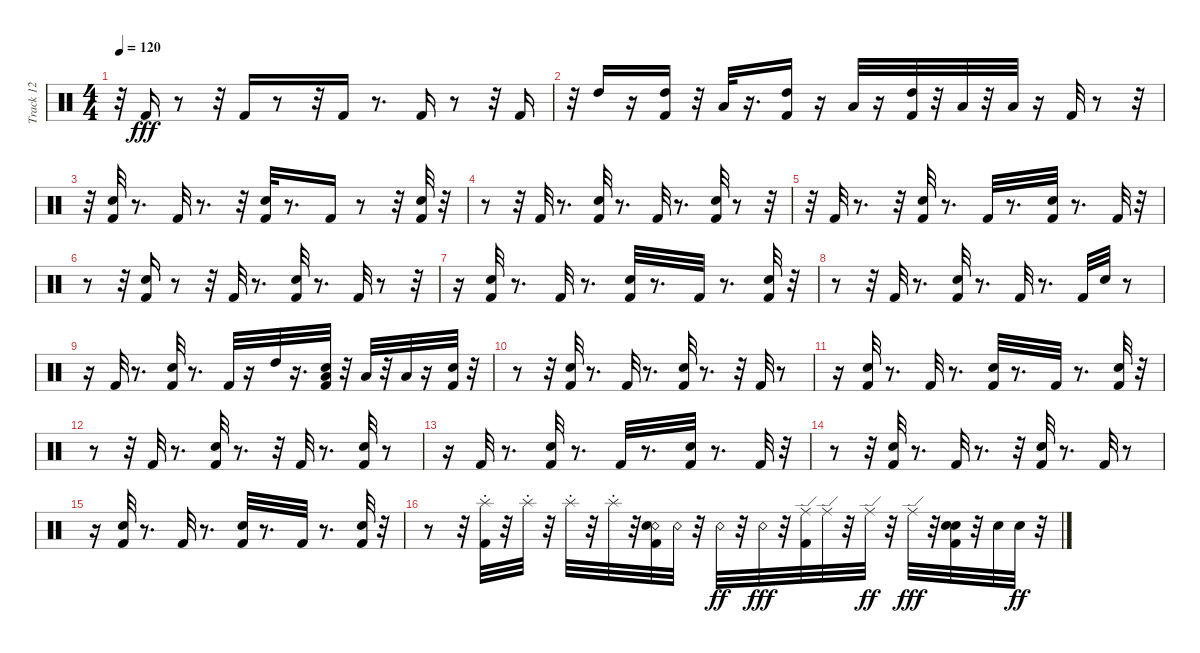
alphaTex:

\track ("Track 12" "Track 12") {instrument percussion}
\staff {score}
\articulation defaults
\ts (4 4)
\tempo 120
\clef neutral
\ks c
r.32{dy fff} "Kick (hit) 2".16 r.8 r.32 "Kick (hit) 2".16 r.8 r.32 "Kick (hit) 2".16 r.8{d} "Kick (hit) 2".16 r.8 r.32 "Kick (hit) 2".16 |
r.32 "High Tom (hit)".16 r.16 ("High Tom (hit)" "Kick (hit) 2").16 r.32 "Low Floor Tom (hit)".32 r.16{d} ("High Tom (hit)" "Kick (hit) 2").16 r.16 "Low Floor Tom (hit)".32 r.16 ("High Tom (hit)" "Kick (hit) 2").32 r.32 "Low Tom (hit)".32 r.32 "Low Floor Tom (hit)".32 r.16 "Kick (hit) 2".32 r.8 r.32 |
r.32 ("Kick (hit) 2" "Electric Snare (hit)").32 r.8{d} "Kick (hit) 2".32 r.8{d} r.32 ("Electric Snare (hit)" "Kick (hit) 2").32 r.8{d} "Kick (hit) 2".16 r.8 r.32 ("Electric Snare (hit)" "Kick (hit) 2").32 r.32 |
r.8 r.32 "Kick (hit) 2".32 r.8{d} ("Electric Snare (hit)" "Kick (hit) 2").32 r.8{d} "Kick (hit) 2".32 r.8{d} ("Electric Snare (hit)" "Kick (hit) 2").32 r.8 r.32 |
r.32 "Kick (hit) 2".32 r.8{d} r.32 ("Electric Snare (hit)" "Kick (hit) 2").32 r.8{d} "Kick (hit) 2".32 r.8{d} ("Electric Snare (hit)" "Kick (hit) 2").32 r.8{d} "Kick (hit) 2".32 r.32 |
r.8 r.32 ("Electric Snare (hit)" "Kick (hit) 2").16 r.8 r.32 "Kick (hit) 2".32 r.8{d} ("Electric Snare (hit)" "Kick (hit) 2").32 r.8{d} "Kick (hit) 2".32 r.8 r.32 |
r.16 ("Electric Snare (hit)" "Kick (hit) 2").32 r.8{d} "Kick (hit) 2".32 r.8{d} ("Kick (hit) 2" "Electric Snare (hit)").32 r.8{d} "Kick (hit) 2".32 r.8{d} ("Kick (hit) 2" "Electric Snare (hit)").32 r.32 |
r.8 r.32 "Kick (hit) 2".32 r.8{d} ("Kick (hit) 2" "Electric Snare (hit)").32 r.8{d} "Kick (hit) 2".32 r.8{d} "Kick (hit) 2".32 "Electric Snare (hit)".32 r.8 |
r.16 "Kick (hit) 2".32 r.8{d} ("Kick (hit) 2" "Electric Snare (hit)").32 r.8{d} "Kick (hit) 2".32 r.16 "High Tom (hit)".32 r.16{d} ("Low Tom (hit)" "Kick (hit) 2" "Electric Snare (hit)").32 r.32 "Low Tom (hit)".32 r.32 "Low Floor Tom (hit)".32 r.16 ("Snare (hit) 2" "Kick (hit) 2").32 r.32 |
r.8 r.32 ("Kick (hit) 2" "Electric Snare (hit)").32 r.8{d} "Kick (hit) 2".32 r.8{d} ("Electric Snare (hit)" "Kick (hit) 2").32 r.8{d} r.32 "Kick (hit) 2".32 r.8 |
r.16 ("Electric Snare (hit)" "Kick (hit) 2").32 r.8{d} "Kick (hit) 2".32 r.8{d} ("Electric Snare (hit)" "Kick (hit) 2").32 r.8{d} "Kick (hit) 2".32 r.8{d} ("Electric Snare (hit)" "Kick (hit) 2").32 r.32 |
r.8 r.32 "Kick (hit) 2".32 r.8{d} ("Electric Snare (hit)" "Kick (hit) 2").32 r.8{d} r.32 "Kick (hit) 2".32 r.8{d} ("Electric Snare (hit)" "Kick (hit) 2").32 r.8 |
r.16 "Kick (hit) 2".32 r.8{d} ("Electric Snare (hit)" "Kick (hit) 2").32 r.8{d} "Kick (hit) 2".32 r.8{d} ("Kick (hit) 2" "Electric Snare (hit)").32 r.8{d} "Kick (hit) 2".32 r.32 |
r.8 r.32 ("Kick (hit) 2" "Electric Snare (hit)").32 r.8{d} "Kick (hit) 2".32 r.8{d} r.32 ("Kick (hit) 2" "Electric Snare (hit)").32 r.8{d} "Kick (hit) 2".32 r.8 |
r.16 ("Kick (hit) 2" "Electric Snare (hit)").32 r.8{d} "Kick (hit) 2".32 r.8{d} ("Kick (hit) 2" "Electric Snare (hit)").32 r.8{d} "Kick (hit) 2".32 r.8{d} ("Kick (hit) 2" "Electric Snare (hit)").32 r.32 |
r.8 r.32 ("Splash (choke)" "Kick (hit) 2").32 r.32 "Splash (choke)".32 r.32 "Splash (choke)".32 r.32 "Splash (choke)".32 r.32 ("Snare (rim shot)" "Kick (hit) 2" "Electric Snare (hit)").32 "Snare (rim shot)".32 r.32 "Snare (rim shot)".32{dy ff} r.32 "Snare (rim shot)".32{dy fff} r.32 ("Ride (edge)" "Kick (hit) 2").32 "Ride (edge)".32 r.32 "Ride (edge)".32{dy ff} r.32 "Ride (edge)".32{dy fff} r.32 ("Snare (hit)" "Kick (hit) 2" "Electric Snare (hit)").32 r.32 "Snare (hit)".32 "Snare (hit)".32{dy ff} r.32
